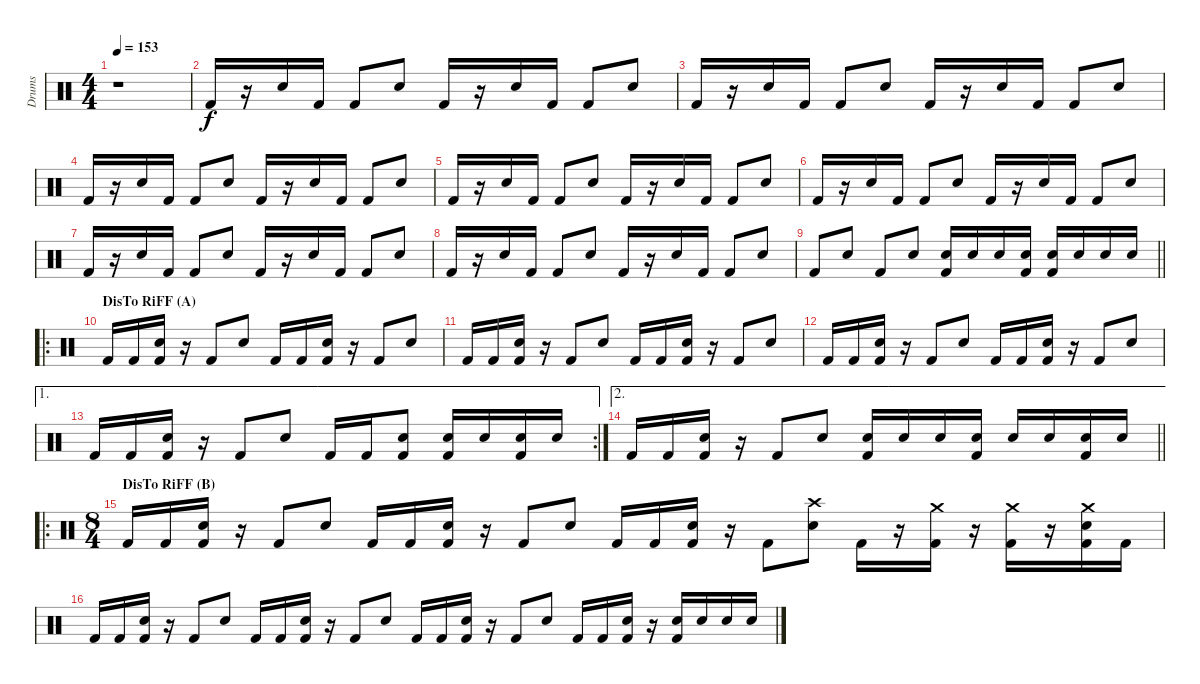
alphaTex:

\track ("Drums" "Drums") {instrument percussion}
\staff {score}
\articulation defaults
\ts (4 4)
\tempo 153
\clef neutral
\ks c
r.1{dy f} |
"Kick (hit) 2".16 r.16 "Electric Snare (hit)".16 "Kick (hit) 2".16 "Kick (hit) 2".8 "Electric Snare (hit)".8 "Kick (hit) 2".16 r.16 "Electric Snare (hit)".16 "Kick (hit) 2".16 "Kick (hit) 2".8 "Electric Snare (hit)".8 |
"Kick (hit) 2".16 r.16 "Electric Snare (hit)".16 "Kick (hit) 2".16 "Kick (hit) 2".8 "Electric Snare (hit)".8 "Kick (hit) 2".16 r.16 "Electric Snare (hit)".16 "Kick (hit) 2".16 "Kick (hit) 2".8 "Electric Snare (hit)".8 |
"Kick (hit) 2".16 r.16 "Electric Snare (hit)".16 "Kick (hit) 2".16 "Kick (hit) 2".8 "Electric Snare (hit)".8 "Kick (hit) 2".16 r.16 "Electric Snare (hit)".16 "Kick (hit) 2".16 "Kick (hit) 2".8 "Electric Snare (hit)".8 |
"Kick (hit) 2".16 r.16 "Electric Snare (hit)".16 "Kick (hit) 2".16 "Kick (hit) 2".8 "Electric Snare (hit)".8 "Kick (hit) 2".16 r.16 "Electric Snare (hit)".16 "Kick (hit) 2".16 "Kick (hit) 2".8 "Electric Snare (hit)".8 |
"Kick (hit) 2".16 r.16 "Electric Snare (hit)".16 "Kick (hit) 2".16 "Kick (hit) 2".8 "Electric Snare (hit)".8 "Kick (hit) 2".16 r.16 "Electric Snare (hit)".16 "Kick (hit) 2".16 "Kick (hit) 2".8 "Electric Snare (hit)".8 |
"Kick (hit) 2".16 r.16 "Electric Snare (hit)".16 "Kick (hit) 2".16 "Kick (hit) 2".8 "Electric Snare (hit)".8 "Kick (hit) 2".16 r.16 "Electric Snare (hit)".16 "Kick (hit) 2".16 "Kick (hit) 2".8 "Electric Snare (hit)".8 |
"Kick (hit) 2".16 r.16 "Electric Snare (hit)".16 "Kick (hit) 2".16 "Kick (hit) 2".8 "Electric Snare (hit)".8 "Kick (hit) 2".16 r.16 "Electric Snare (hit)".16 "Kick (hit) 2".16 "Kick (hit) 2".8 "Electric Snare (hit)".8 |
\barLineRight lightlight "Kick (hit) 2".8 "Electric Snare (hit)".8 "Kick (hit) 2".8 "Electric Snare (hit)".8
("Metronome (bell)" "Kick (hit) 2").16 "Metronome (bell)".16 "Metronome (bell)".16 ("Metronome (bell)" "Kick (hit) 2").16 ("Metronome (bell)" "Kick (hit) 2").16 "Metronome (bell)".16 "Metronome (bell)".16 "Metronome (bell)".16 |
\ro
\section ("" "DisTo RiFF (A)")
"Kick (hit) 2".16 "Kick (hit) 2".16 ("Electric Snare (hit)" "Kick (hit) 2").16 r.16 "Kick (hit) 2".8 "Electric Snare (hit)".8 "Kick (hit) 2".16 "Kick (hit) 2".16 ("Electric Snare (hit)" "Kick (hit) 2").16 r.16 "Kick (hit) 2".8 "Electric Snare (hit)".8 |
"Kick (hit) 2".16 "Kick (hit) 2".16 ("Electric Snare (hit)" "Kick (hit) 2").16 r.16 "Kick (hit) 2".8 "Electric Snare (hit)".8 "Kick (hit) 2".16 "Kick (hit) 2".16 ("Electric Snare (hit)" "Kick (hit) 2").16 r.16 "Kick (hit) 2".8 "Electric Snare (hit)".8 |
"Kick (hit) 2".16 "Kick (hit) 2".16 ("Electric Snare (hit)" "Kick (hit) 2").16 r.16 "Kick (hit) 2".8 "Electric Snare (hit)".8 "Kick (hit) 2".16 "Kick (hit) 2".16 ("Electric Snare (hit)" "Kick (hit) 2").16 r.16 "Kick (hit) 2".8 "Electric Snare (hit)".8 |
\ae 1
\rc 2 "Kick (hit) 2".16 "Kick (hit) 2".16
("Electric Snare (hit)" "Kick (hit) 2").16 r.16 "Kick (hit) 2".8 "Electric Snare (hit)".8 "Kick (hit) 2".16 "Kick (hit) 2".16 ("Electric Snare (hit)" "Kick (hit) 2").8 ("Metronome (bell)" "Kick (hit) 2").16 "Metronome (bell)".16 ("Metronome (bell)" "Kick (hit) 2").16 "Metronome (bell)".16 |
\ae 2
\barLineRight lightlight "Kick (hit) 2".16 "Kick (hit) 2".16
("Electric Snare (hit)" "Kick (hit) 2").16 r.16 "Kick (hit) 2".8 "Electric Snare (hit)".8 ("Metronome (bell)" "Kick (hit) 2").16 "Metronome (bell)".16 "Metronome (bell)".16 ("Metronome (bell)" "Kick (hit) 2").16 "Metronome (bell)".16 "Metronome (bell)".16 ("Metronome (bell)" "Kick (hit) 2").16 "Metronome (bell)".16 |
\ro
\ts (8 4)
\section ("" "DisTo RiFF (B)")
"Kick (hit) 2".16 "Kick (hit) 2".16 ("Electric Snare (hit)" "Kick (hit) 2").16 r.16 "Kick (hit) 2".8 "Electric Snare (hit)".8 "Kick (hit) 2".16 "Kick (hit) 2".16 ("Electric Snare (hit)" "Kick (hit) 2").16 r.16 "Kick (hit) 2".8 "Electric Snare (hit)".8 "Kick (hit) 2".16 "Kick (hit) 2".16 ("Electric Snare (hit)" "Kick (hit) 2").16 r.16 "Kick (hit) 2".8 ("Crash high (hit)" "Electric Snare (hit)").8 "Kick (hit) 2".16 r.16 ("Crash medium (hit)" "Kick (hit) 2").16 r.16 ("Crash medium (hit)" "Kick (hit) 2").16 r.16 ("Crash medium (hit)" "Electric Snare (hit)" "Kick (hit) 2").16 "Kick (hit) 2".16 |
"Kick (hit) 2".16 "Kick (hit) 2".16 ("Electric Snare (hit)" "Kick (hit) 2").16 r.16 "Kick (hit) 2".8 "Electric Snare (hit)".8 "Kick (hit) 2".16 "Kick (hit) 2".16 ("Electric Snare (hit)" "Kick (hit) 2").16 r.16 "Kick (hit) 2".8 "Electric Snare (hit)".8 "Kick (hit) 2".16 "Kick (hit) 2".16 ("Electric Snare (hit)" "Kick (hit) 2").16 r.16 "Kick (hit) 2".8 "Electric Snare (hit)".8 "Kick (hit) 2".16 "Kick (hit) 2".16 ("Electric Snare (hit)" "Kick (hit) 2").16 r.16 ("Metronome (bell)" "Kick (hit) 2").16 "Metronome (bell)".16 "Metronome (bell)".16 "Metronome (bell)".16
